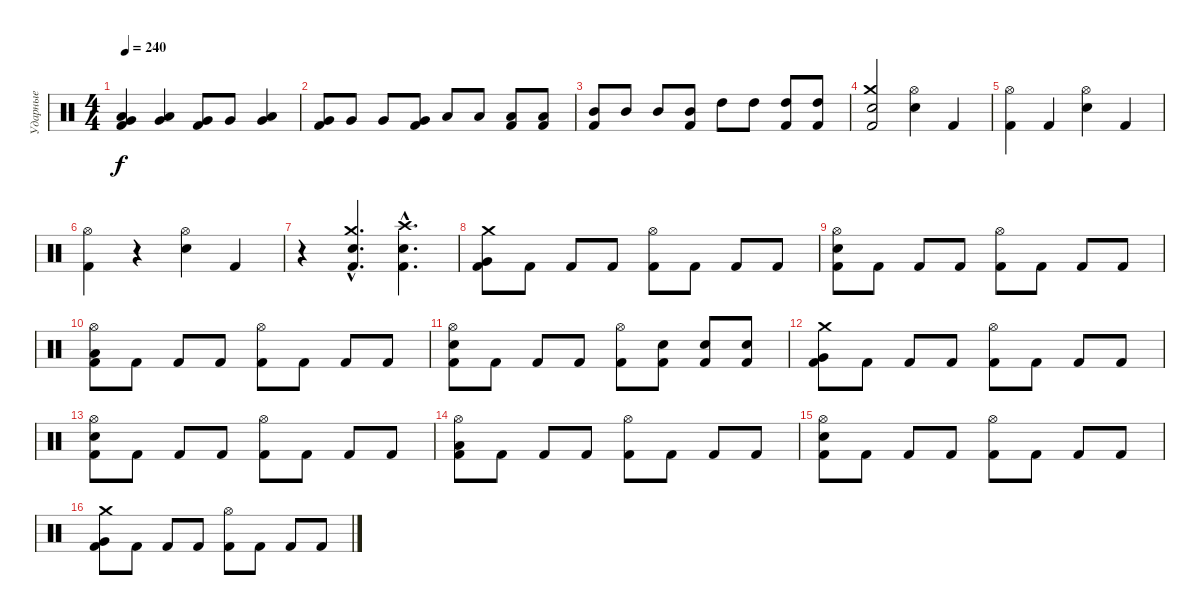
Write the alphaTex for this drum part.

\track ("Ударные" "Ударные") {instrument percussion}
\staff {score}
\articulation defaults
\ts (4 4)
\tempo 240
\clef neutral
\ks c
("Low Tom (hit)" "Very Low Tom (hit)" "Kick (hit) 2").4{dy f} ("Low Tom (hit)" "Very Low Tom (hit)").4 ("Very Low Tom (hit)" "Kick (hit) 2").8 "Very Low Tom (hit)".8 ("Low Tom (hit)" "Very Low Tom (hit)").4 |
("Very Low Tom (hit)" "Kick (hit) 2").8 "Very Low Tom (hit)".8 "Very Low Tom (hit)".8 ("Very Low Tom (hit)" "Kick (hit) 2").8 "Low Tom (hit)".8 "Low Tom (hit)".8 ("Low Tom (hit)" "Kick (hit) 2").8 ("Low Tom (hit)" "Kick (hit) 2").8 |
("Mid Tom (hit)" "Kick (hit) 2").8 "Mid Tom (hit)".8 "Mid Tom (hit)".8 ("Mid Tom (hit)" "Kick (hit) 2").8 "High Tom (hit)".8 "High Tom (hit)".8 ("High Tom (hit)" "Kick (hit) 2").8 ("High Tom (hit)" "Kick (hit) 2").8 |
("Crash medium (hit)" "Snare (hit) 2" "Kick (hit) 2").2 ("Hi-Hat (open)" "Snare (hit) 2").4 "Kick (hit) 2".4 |
("Hi-Hat (open)" "Kick (hit) 2").4 "Kick (hit) 2".4 ("Hi-Hat (open)" "Snare (hit) 2").4 "Kick (hit) 2".4 |
("Hi-Hat (open)" "Kick (hit) 2").4 r.4 ("Hi-Hat (open)" "Snare (hit) 2").4 "Kick (hit) 2".4 |
r.4 ("Crash medium (hit)"{hac} "Snare (hit) 2"{hac} "Kick (hit) 2"{hac}).4{d} ("Crash high (hit)"{hac} "Snare (hit) 2"{hac} "Kick (hit) 2"{hac}).4{d} |
("Crash medium (hit)" "Very Low Tom (hit)" "Kick (hit) 2").8 "Kick (hit) 2".8 "Kick (hit) 2".8 "Kick (hit) 2".8 ("Hi-Hat (open)" "Kick (hit) 2").8 "Kick (hit) 2".8 "Kick (hit) 2".8 "Kick (hit) 2".8 |
("Hi-Hat (open)" "Snare (hit) 2" "Kick (hit) 2").8 "Kick (hit) 2".8 "Kick (hit) 2".8 "Kick (hit) 2".8 ("Hi-Hat (open)" "Kick (hit) 2").8 "Kick (hit) 2".8 "Kick (hit) 2".8 "Kick (hit) 2".8 |
("Hi-Hat (open)" "Low Tom (hit)" "Kick (hit) 2").8 "Kick (hit) 2".8 "Kick (hit) 2".8 "Kick (hit) 2".8 ("Hi-Hat (open)" "Kick (hit) 2").8 "Kick (hit) 2".8 "Kick (hit) 2".8 "Kick (hit) 2".8 |
("Hi-Hat (open)" "Snare (hit) 2" "Kick (hit) 2").8 "Kick (hit) 2".8 "Kick (hit) 2".8 "Kick (hit) 2".8 ("Hi-Hat (open)" "Kick (hit) 2").8 ("Snare (hit) 2" "Kick (hit) 2").8 ("Snare (hit) 2" "Kick (hit) 2").8 ("Snare (hit) 2" "Kick (hit) 2").8 |
("Crash medium (hit)" "Very Low Tom (hit)" "Kick (hit) 2").8 "Kick (hit) 2".8 "Kick (hit) 2".8 "Kick (hit) 2".8 ("Hi-Hat (open)" "Kick (hit) 2").8 "Kick (hit) 2".8 "Kick (hit) 2".8 "Kick (hit) 2".8 |
("Hi-Hat (open)" "Snare (hit) 2" "Kick (hit) 2").8 "Kick (hit) 2".8 "Kick (hit) 2".8 "Kick (hit) 2".8 ("Hi-Hat (open)" "Kick (hit) 2").8 "Kick (hit) 2".8 "Kick (hit) 2".8 "Kick (hit) 2".8 |
("Hi-Hat (open)" "Low Tom (hit)" "Kick (hit) 2").8 "Kick (hit) 2".8 "Kick (hit) 2".8 "Kick (hit) 2".8 ("Hi-Hat (open)" "Kick (hit) 2").8 "Kick (hit) 2".8 "Kick (hit) 2".8 "Kick (hit) 2".8 |
("Hi-Hat (open)" "Snare (hit) 2" "Kick (hit) 2").8 "Kick (hit) 2".8 "Kick (hit) 2".8 "Kick (hit) 2".8 ("Hi-Hat (open)" "Kick (hit) 2").8 "Kick (hit) 2".8 "Kick (hit) 2".8 "Kick (hit) 2".8 |
("Crash medium (hit)" "Very Low Tom (hit)" "Kick (hit) 2").8 "Kick (hit) 2".8 "Kick (hit) 2".8 "Kick (hit) 2".8 ("Hi-Hat (open)" "Kick (hit) 2").8 "Kick (hit) 2".8 "Kick (hit) 2".8 "Kick (hit) 2".8
